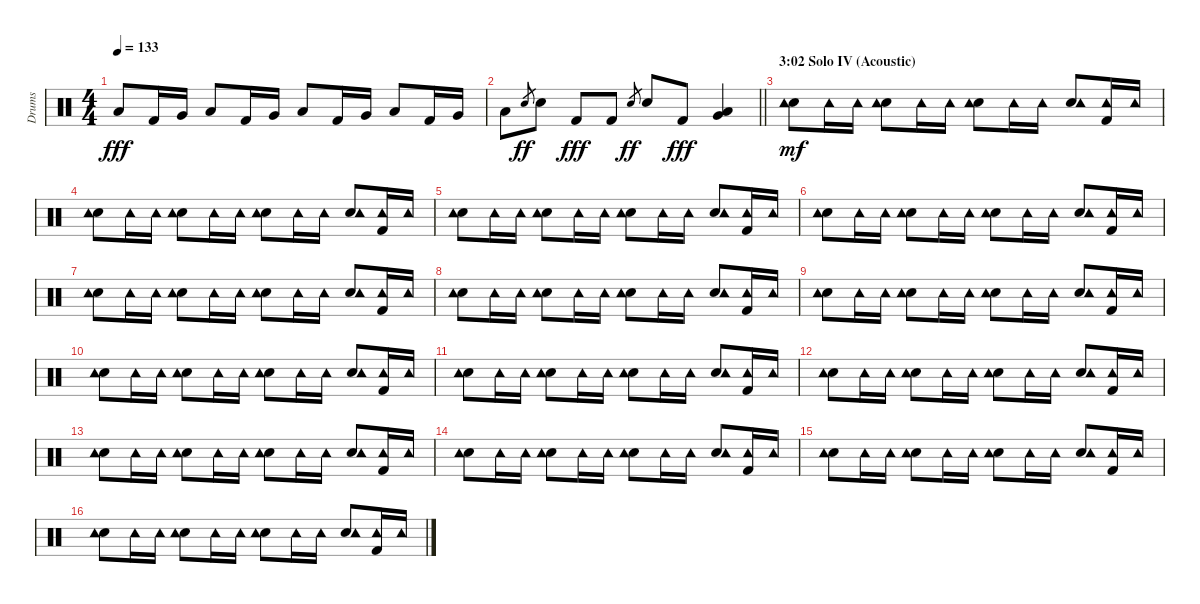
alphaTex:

\track ("Drums" "Drums") {instrument percussion}
\staff {score}
\articulation defaults
\ts (4 4)
\tempo 133
\clef neutral
\ks c "Low Tom (hit)".8{dy fff} "Kick (hit) 2".16 "Very Low Tom (hit)".16 "Low Tom (hit)".8 "Kick (hit) 2".16 "Very Low Tom (hit)".16 "Low Tom (hit)".8 "Kick (hit) 2".16 "Very Low Tom (hit)".16 "Low Tom (hit)".8 "Kick (hit) 2".16 "Very Low Tom (hit)".16
|
\barLineRight lightlight "Low Tom (hit)".8 "Electric Snare (hit)".8{gr dy ff} "Electric Snare (hit)".8 "Kick (hit) 2".8{dy fff} "Kick (hit) 2".8 "Electric Snare (hit)".8{gr dy ff} "Electric Snare (hit)".8 "Kick (hit) 2".8{dy fff}
("Low Tom (hit)" "Very Low Tom (hit)").4 |
\section ("" "3:02 Solo IV (Acoustic)")
("Electric Snare (hit)" "Tambourine (hit)").8{dy mf} "Tambourine (hit)".16 "Tambourine (hit)".16 ("Electric Snare (hit)" "Tambourine (hit)").8 "Tambourine (hit)".16 "Tambourine (hit)".16 ("Electric Snare (hit)" "Tambourine (hit)").8 "Tambourine (hit)".16 "Tambourine (hit)".16 ("Electric Snare (hit)" "Tambourine (hit)").8 ("Kick (hit) 2" "Tambourine (hit)").16 "Tambourine (hit)".16 |
("Electric Snare (hit)" "Tambourine (hit)").8 "Tambourine (hit)".16 "Tambourine (hit)".16 ("Electric Snare (hit)" "Tambourine (hit)").8 "Tambourine (hit)".16 "Tambourine (hit)".16 ("Electric Snare (hit)" "Tambourine (hit)").8 "Tambourine (hit)".16 "Tambourine (hit)".16 ("Electric Snare (hit)" "Tambourine (hit)").8 ("Kick (hit) 2" "Tambourine (hit)").16 "Tambourine (hit)".16 |
("Electric Snare (hit)" "Tambourine (hit)").8 "Tambourine (hit)".16 "Tambourine (hit)".16 ("Electric Snare (hit)" "Tambourine (hit)").8 "Tambourine (hit)".16 "Tambourine (hit)".16 ("Electric Snare (hit)" "Tambourine (hit)").8 "Tambourine (hit)".16 "Tambourine (hit)".16 ("Electric Snare (hit)" "Tambourine (hit)").8 ("Kick (hit) 2" "Tambourine (hit)").16 "Tambourine (hit)".16 |
("Electric Snare (hit)" "Tambourine (hit)").8 "Tambourine (hit)".16 "Tambourine (hit)".16 ("Electric Snare (hit)" "Tambourine (hit)").8 "Tambourine (hit)".16 "Tambourine (hit)".16 ("Electric Snare (hit)" "Tambourine (hit)").8 "Tambourine (hit)".16 "Tambourine (hit)".16 ("Electric Snare (hit)" "Tambourine (hit)").8 ("Kick (hit) 2" "Tambourine (hit)").16 "Tambourine (hit)".16 |
("Electric Snare (hit)" "Tambourine (hit)").8 "Tambourine (hit)".16 "Tambourine (hit)".16 ("Electric Snare (hit)" "Tambourine (hit)").8 "Tambourine (hit)".16 "Tambourine (hit)".16 ("Electric Snare (hit)" "Tambourine (hit)").8 "Tambourine (hit)".16 "Tambourine (hit)".16 ("Electric Snare (hit)" "Tambourine (hit)").8 ("Kick (hit) 2" "Tambourine (hit)").16 "Tambourine (hit)".16 |
("Electric Snare (hit)" "Tambourine (hit)").8 "Tambourine (hit)".16 "Tambourine (hit)".16 ("Electric Snare (hit)" "Tambourine (hit)").8 "Tambourine (hit)".16 "Tambourine (hit)".16 ("Electric Snare (hit)" "Tambourine (hit)").8 "Tambourine (hit)".16 "Tambourine (hit)".16 ("Electric Snare (hit)" "Tambourine (hit)").8 ("Kick (hit) 2" "Tambourine (hit)").16 "Tambourine (hit)".16 |
("Electric Snare (hit)" "Tambourine (hit)").8 "Tambourine (hit)".16 "Tambourine (hit)".16 ("Electric Snare (hit)" "Tambourine (hit)").8 "Tambourine (hit)".16 "Tambourine (hit)".16 ("Electric Snare (hit)" "Tambourine (hit)").8 "Tambourine (hit)".16 "Tambourine (hit)".16 ("Electric Snare (hit)" "Tambourine (hit)").8 ("Kick (hit) 2" "Tambourine (hit)").16 "Tambourine (hit)".16 |
("Electric Snare (hit)" "Tambourine (hit)").8 "Tambourine (hit)".16 "Tambourine (hit)".16 ("Electric Snare (hit)" "Tambourine (hit)").8 "Tambourine (hit)".16 "Tambourine (hit)".16 ("Electric Snare (hit)" "Tambourine (hit)").8 "Tambourine (hit)".16 "Tambourine (hit)".16 ("Electric Snare (hit)" "Tambourine (hit)").8 ("Kick (hit) 2" "Tambourine (hit)").16 "Tambourine (hit)".16 |
("Electric Snare (hit)" "Tambourine (hit)").8 "Tambourine (hit)".16 "Tambourine (hit)".16 ("Electric Snare (hit)" "Tambourine (hit)").8 "Tambourine (hit)".16 "Tambourine (hit)".16 ("Electric Snare (hit)" "Tambourine (hit)").8 "Tambourine (hit)".16 "Tambourine (hit)".16 ("Electric Snare (hit)" "Tambourine (hit)").8 ("Kick (hit) 2" "Tambourine (hit)").16 "Tambourine (hit)".16 |
("Electric Snare (hit)" "Tambourine (hit)").8 "Tambourine (hit)".16 "Tambourine (hit)".16 ("Electric Snare (hit)" "Tambourine (hit)").8 "Tambourine (hit)".16 "Tambourine (hit)".16 ("Electric Snare (hit)" "Tambourine (hit)").8 "Tambourine (hit)".16 "Tambourine (hit)".16 ("Electric Snare (hit)" "Tambourine (hit)").8 ("Kick (hit) 2" "Tambourine (hit)").16 "Tambourine (hit)".16 |
("Electric Snare (hit)" "Tambourine (hit)").8 "Tambourine (hit)".16 "Tambourine (hit)".16 ("Electric Snare (hit)" "Tambourine (hit)").8 "Tambourine (hit)".16 "Tambourine (hit)".16 ("Electric Snare (hit)" "Tambourine (hit)").8 "Tambourine (hit)".16 "Tambourine (hit)".16 ("Electric Snare (hit)" "Tambourine (hit)").8 ("Kick (hit) 2" "Tambourine (hit)").16 "Tambourine (hit)".16 |
("Electric Snare (hit)" "Tambourine (hit)").8 "Tambourine (hit)".16 "Tambourine (hit)".16 ("Electric Snare (hit)" "Tambourine (hit)").8 "Tambourine (hit)".16 "Tambourine (hit)".16 ("Electric Snare (hit)" "Tambourine (hit)").8 "Tambourine (hit)".16 "Tambourine (hit)".16 ("Electric Snare (hit)" "Tambourine (hit)").8 ("Kick (hit) 2" "Tambourine (hit)").16 "Tambourine (hit)".16 |
("Electric Snare (hit)" "Tambourine (hit)").8 "Tambourine (hit)".16 "Tambourine (hit)".16 ("Electric Snare (hit)" "Tambourine (hit)").8 "Tambourine (hit)".16 "Tambourine (hit)".16 ("Electric Snare (hit)" "Tambourine (hit)").8 "Tambourine (hit)".16 "Tambourine (hit)".16 ("Electric Snare (hit)" "Tambourine (hit)").8 ("Kick (hit) 2" "Tambourine (hit)").16 "Tambourine (hit)".16 |
("Electric Snare (hit)" "Tambourine (hit)").8 "Tambourine (hit)".16 "Tambourine (hit)".16 ("Electric Snare (hit)" "Tambourine (hit)").8 "Tambourine (hit)".16 "Tambourine (hit)".16 ("Electric Snare (hit)" "Tambourine (hit)").8 "Tambourine (hit)".16 "Tambourine (hit)".16 ("Electric Snare (hit)" "Tambourine (hit)").8 ("Kick (hit) 2" "Tambourine (hit)").16 "Tambourine (hit)".16
